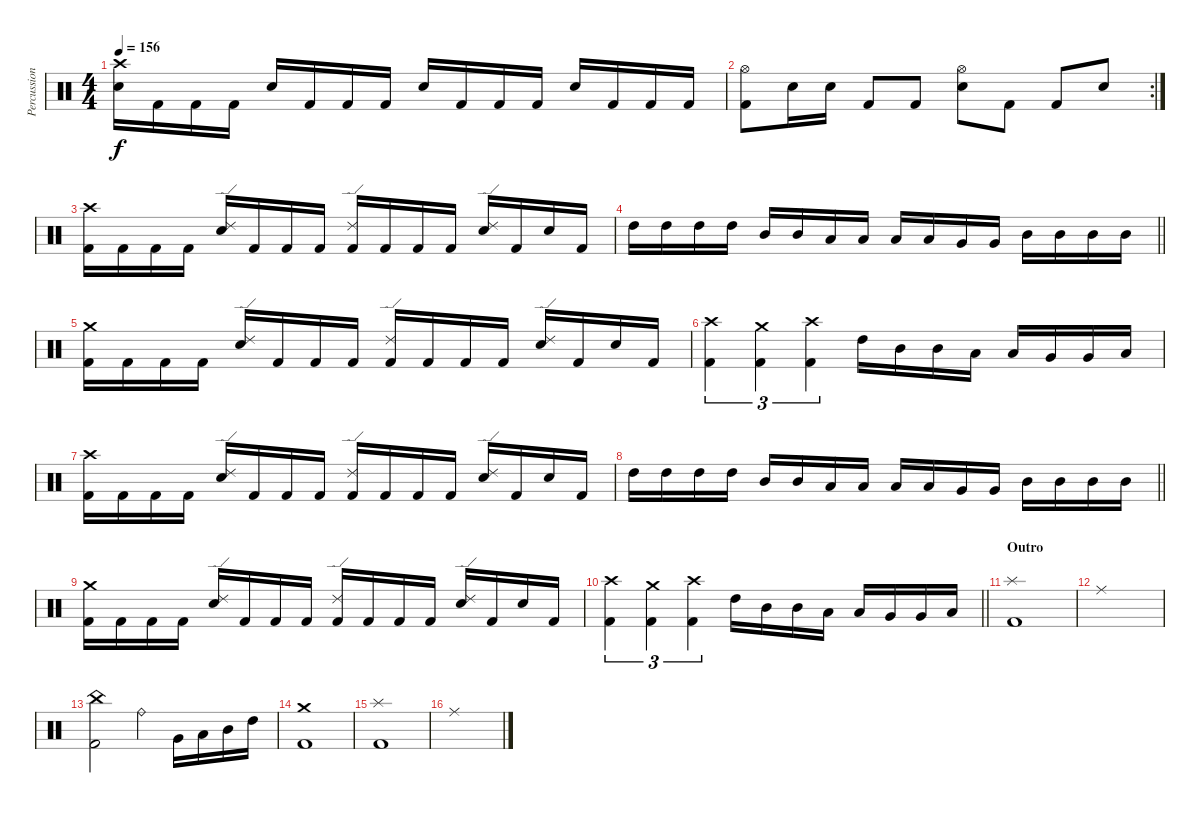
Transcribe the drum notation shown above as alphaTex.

\track ("Percussion" "Percussion") {instrument percussion}
\staff {score}
\articulation defaults
\ts (4 4)
\tempo 156
\clef neutral
\ks c
("Crash high (hit)" "Snare (hit) 2").16{dy f} "Kick (hit) 2".16 "Kick (hit) 2".16 "Kick (hit) 2".16 "Snare (hit) 2".16 "Kick (hit) 2".16 "Kick (hit) 2".16 "Kick (hit) 2".16 "Snare (hit) 2".16 "Kick (hit) 2".16 "Kick (hit) 2".16 "Kick (hit) 2".16 "Snare (hit) 2".16 "Kick (hit) 2".16 "Kick (hit) 2".16 "Kick (hit) 2".16 |
\rc 2
("Hi-Hat (open)" "Kick (hit) 2").8 "Snare (hit) 2".16 "Snare (hit) 2".16 "Kick (hit) 2".8 "Kick (hit) 2".8 ("Hi-Hat (open)" "Snare (hit) 2").8 "Kick (hit) 2".8 "Kick (hit) 2".8 "Snare (hit) 2".8 |
("Crash high (hit)" "Kick (hit) 2").16 "Kick (hit) 2".16 "Kick (hit) 2".16 "Kick (hit) 2".16 ("Ride (edge) 2" "Snare (hit) 2").16 "Kick (hit) 2".16 "Kick (hit) 2".16 "Kick (hit) 2".16 ("Ride (edge) 2" "Kick (hit) 2").16 "Kick (hit) 2".16 "Kick (hit) 2".16 "Kick (hit) 2".16 ("Ride (edge) 2" "Snare (hit) 2").16 "Kick (hit) 2".16 "Snare (hit) 2".16 "Kick (hit) 2".16 |
\barLineRight lightlight "High Tom (hit)".16 "High Tom (hit)".16 "High Tom (hit)".16 "High Tom (hit)".16 "Mid Tom (hit)".16 "Mid Tom (hit)".16 "Low Tom (hit)".16 "Low Tom (hit)".16 "Low Tom (hit)".16 "Low Tom (hit)".16 "Very Low Tom (hit)".16 "Very Low Tom (hit)".16 "Mid Tom (hit)".16 "Mid Tom (hit)".16 "Mid Tom (hit)".16 "Mid Tom (hit)".16
|
("Crash medium (hit)" "Kick (hit) 2").16 "Kick (hit) 2".16 "Kick (hit) 2".16 "Kick (hit) 2".16 ("Ride (edge) 2" "Snare (hit) 2").16 "Kick (hit) 2".16 "Kick (hit) 2".16 "Kick (hit) 2".16 ("Ride (edge) 2" "Kick (hit) 2").16 "Kick (hit) 2".16 "Kick (hit) 2".16 "Kick (hit) 2".16 ("Ride (edge) 2" "Snare (hit) 2").16 "Kick (hit) 2".16 "Snare (hit) 2".16 "Kick (hit) 2".16 |
("Crash high (hit)" "Kick (hit) 2").4{tu (3 2)} ("Crash medium (hit)" "Kick (hit) 2").4{tu (3 2)} ("Crash high (hit)" "Kick (hit) 2").4{tu (3 2)} "High Tom (hit)".16 "Mid Tom (hit)".16 "Mid Tom (hit)".16 "Low Tom (hit)".16 "Low Tom (hit)".16 "Very Low Tom (hit)".16 "Very Low Tom (hit)".16 "Low Floor Tom (hit)".16 |
("Crash high (hit)" "Kick (hit) 2").16 "Kick (hit) 2".16 "Kick (hit) 2".16 "Kick (hit) 2".16 ("Ride (edge) 2" "Snare (hit) 2").16 "Kick (hit) 2".16 "Kick (hit) 2".16 "Kick (hit) 2".16 ("Ride (edge) 2" "Kick (hit) 2").16 "Kick (hit) 2".16 "Kick (hit) 2".16 "Kick (hit) 2".16 ("Ride (edge) 2" "Snare (hit) 2").16 "Kick (hit) 2".16 "Snare (hit) 2".16 "Kick (hit) 2".16 |
\barLineRight lightlight "High Tom (hit)".16 "High Tom (hit)".16 "High Tom (hit)".16 "High Tom (hit)".16 "Mid Tom (hit)".16 "Mid Tom (hit)".16 "Low Tom (hit)".16 "Low Tom (hit)".16 "Low Tom (hit)".16 "Low Tom (hit)".16 "Very Low Tom (hit)".16 "Very Low Tom (hit)".16 "Mid Tom (hit)".16 "Mid Tom (hit)".16 "Mid Tom (hit)".16 "Mid Tom (hit)".16
|
("Crash medium (hit)" "Kick (hit) 2").16 "Kick (hit) 2".16 "Kick (hit) 2".16 "Kick (hit) 2".16 ("Ride (edge) 2" "Snare (hit) 2").16 "Kick (hit) 2".16 "Kick (hit) 2".16 "Kick (hit) 2".16 ("Ride (edge) 2" "Kick (hit) 2").16 "Kick (hit) 2".16 "Kick (hit) 2".16 "Kick (hit) 2".16 ("Ride (edge) 2" "Snare (hit) 2").16 "Kick (hit) 2".16 "Snare (hit) 2".16 "Kick (hit) 2".16 |
\barLineRight lightlight
("Crash high (hit)" "Kick (hit) 2").4{tu (3 2)} ("Crash medium (hit)" "Kick (hit) 2").4{tu (3 2)} ("Crash high (hit)" "Kick (hit) 2").4{tu (3 2)} "High Tom (hit)".16 "Mid Tom (hit)".16 "Mid Tom (hit)".16 "Low Tom (hit)".16 "Low Tom (hit)".16 "Very Low Tom (hit)".16 "Very Low Tom (hit)".16 "Low Floor Tom (hit)".16 |
\section ("" "Outro")
("Splash (hit)" "Kick (hit) 2").1 |
"Ride (middle)".1 |
("China (hit)" "Kick (hit) 2").2 "Ride (bell)".4 "Very Low Tom (hit)".16 "Low Tom (hit)".16 "Mid Tom (hit)".16 "High Tom (hit)".16 |
("Crash medium (hit)" "Kick (hit) 2").1 |
("Splash (hit)" "Kick (hit) 2").1 |
"Ride (middle)".1
